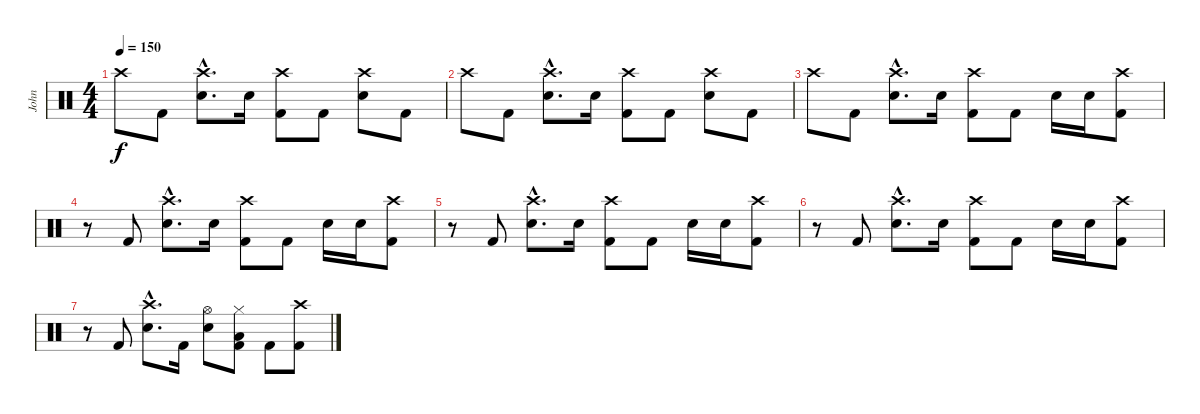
\track ("John" "John") {instrument percussion}
\staff {score}
\articulation defaults
\ts (4 4)
\tempo 150
\clef neutral
\ks c "Crash high (hit)".8{dy f} "Kick (hit) 2".8
("Crash high (hit)"{hac} "Electric Snare (hit)"{hac}).8{d} "Electric Snare (hit)".16 ("Crash high (hit)" "Kick (hit) 2").8 "Kick (hit) 2".8 ("Crash high (hit)" "Electric Snare (hit)").8 "Kick (hit) 2".8 |
"Crash high (hit)".8 "Kick (hit) 2".8 ("Crash high (hit)"{hac} "Electric Snare (hit)"{hac}).8{d} "Electric Snare (hit)".16 ("Crash high (hit)" "Kick (hit) 2").8 "Kick (hit) 2".8 ("Crash high (hit)" "Electric Snare (hit)").8 "Kick (hit) 2".8 |
"Crash high (hit)".8 "Kick (hit) 2".8 ("Crash high (hit)"{hac} "Electric Snare (hit)"{hac}).8{d} "Electric Snare (hit)".16 ("Crash high (hit)" "Kick (hit) 2").8 "Kick (hit) 2".8 "Electric Snare (hit)".16 "Electric Snare (hit)".16 ("Crash high (hit)" "Kick (hit) 2").8 |
r.8 "Kick (hit) 2".8 ("Crash high (hit)"{hac} "Electric Snare (hit)"{hac}).8{d} "Electric Snare (hit)".16 ("Crash high (hit)" "Kick (hit) 2").8 "Kick (hit) 2".8 "Electric Snare (hit)".16 "Electric Snare (hit)".16 ("Crash high (hit)" "Kick (hit) 2").8 |
r.8 "Kick (hit) 2".8 ("Crash high (hit)"{hac} "Electric Snare (hit)"{hac}).8{d} "Electric Snare (hit)".16 ("Crash high (hit)" "Kick (hit) 2").8 "Kick (hit) 2".8 "Electric Snare (hit)".16 "Electric Snare (hit)".16 ("Crash high (hit)" "Kick (hit) 2").8 |
r.8 "Kick (hit) 2".8 ("Crash high (hit)"{hac} "Electric Snare (hit)"{hac}).8{d} "Electric Snare (hit)".16 ("Crash high (hit)" "Kick (hit) 2").8 "Kick (hit) 2".8 "Electric Snare (hit)".16 "Electric Snare (hit)".16 ("Crash high (hit)" "Kick (hit) 2").8 |
r.8 "Kick (hit) 2".8 ("Crash high (hit)"{hac} "Electric Snare (hit)"{hac}).8{d} "Kick (hit) 2".16 ("Hi-Hat (open)" "Electric Snare (hit)").8 ("Hi-Hat (closed)" "Low Floor Tom (hit)" "Kick (hit) 2").8 "Kick (hit) 2".8 ("Crash high (hit)" "Kick (hit) 2").8
